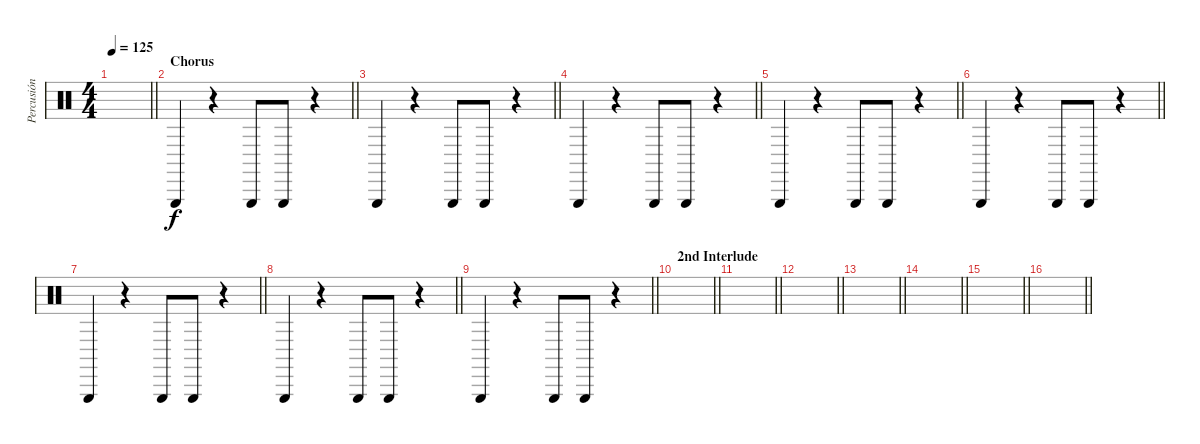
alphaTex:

\track ("Percusión" "Percusión") {instrument percussion}
\staff {score}
\articulation defaults
\ts (4 4)
\tempo 125
\clef neutral
\barLineRight lightlight
\ks c
|
\section ("" "Chorus")
\barLineRight lightlight "Triangle (hit)".4
r.4 "Triangle (hit)".8 "Triangle (hit)".8 r.4 |
\barLineRight lightlight "Triangle (hit)".4
r.4 "Triangle (hit)".8 "Triangle (hit)".8 r.4 |
\barLineRight lightlight "Triangle (hit)".4
r.4 "Triangle (hit)".8 "Triangle (hit)".8 r.4 |
\barLineRight lightlight "Triangle (hit)".4
r.4 "Triangle (hit)".8 "Triangle (hit)".8 r.4 |
\barLineRight lightlight "Triangle (hit)".4
r.4 "Triangle (hit)".8 "Triangle (hit)".8 r.4 |
\barLineRight lightlight "Triangle (hit)".4
r.4 "Triangle (hit)".8 "Triangle (hit)".8 r.4 |
\barLineRight lightlight "Triangle (hit)".4
r.4 "Triangle (hit)".8 "Triangle (hit)".8 r.4 |
\barLineRight lightlight "Triangle (hit)".4
r.4 "Triangle (hit)".8 "Triangle (hit)".8 r.4 |
\section ("" "2nd Interlude")
\barLineRight lightlight
|
\barLineRight lightlight
|
\barLineRight lightlight
|
\barLineRight lightlight
|
\barLineRight lightlight
|
\barLineRight lightlight
|
\barLineRight lightlight
